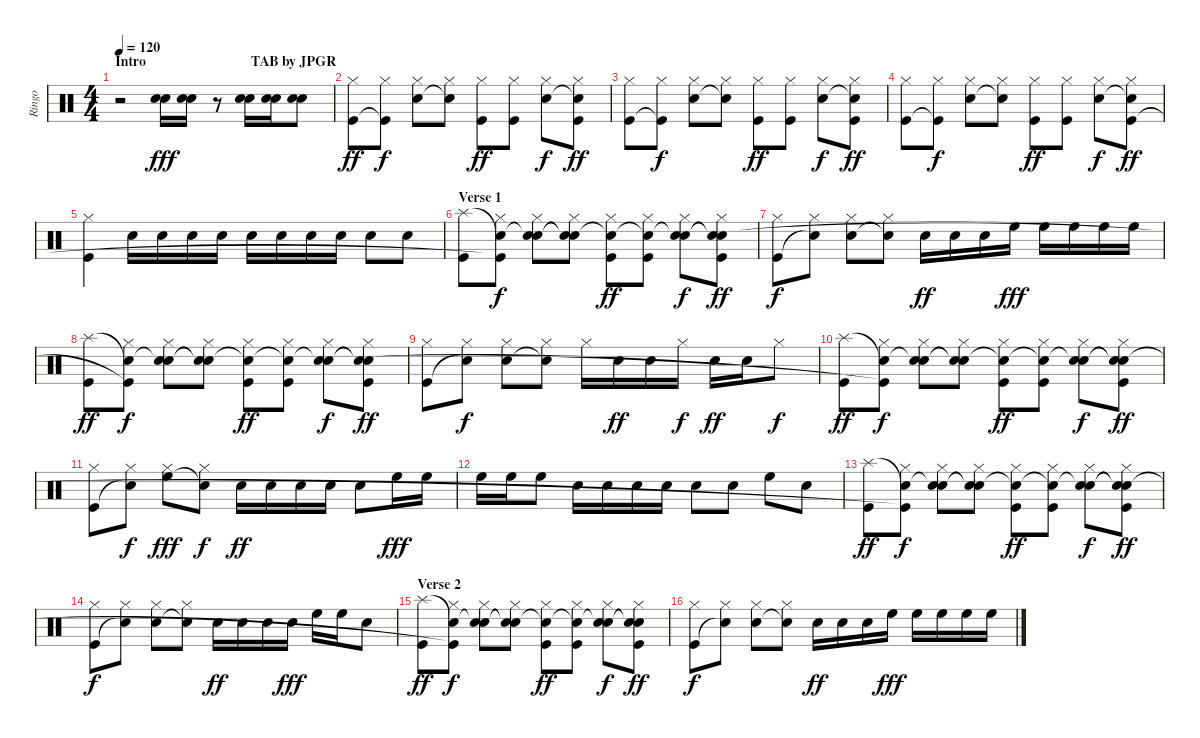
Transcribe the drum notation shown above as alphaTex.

\track ("Ringo" "Ringo") {instrument percussion}
\staff {score}
\articulation defaults
\ts (4 4)
\section ("" "Intro                              TAB by JPGR")
\tempo 120
\clef neutral
\ks c
r.2{dy fff} ("Electric Snare (hit)" "Electric Snare (hit)").16 ("Electric Snare (hit)" "Electric Snare (hit)").16 r.8 ("Electric Snare (hit)" "Electric Snare (hit)").16 ("Electric Snare (hit)" "Electric Snare (hit)").16 ("Electric Snare (hit)" "Electric Snare (hit)").8 |
("Hi-Hat (closed)" "Kick (hit)").8{dy ff} ("Hi-Hat (closed)" "Kick (hit)"{t}).8{dy f} ("Hi-Hat (closed)" "Electric Snare (hit)").8 ("Hi-Hat (closed)" "Snare (hit)"{t}).8 ("Hi-Hat (closed)" "Kick (hit)").8{dy ff} ("Hi-Hat (closed)" "Kick (hit)").8 ("Hi-Hat (closed)" "Electric Snare (hit)").8{dy f} ("Hi-Hat (closed)" "Snare (hit)"{t} "Kick (hit)").8{dy ff} |
("Hi-Hat (closed)" "Kick (hit)").8 ("Hi-Hat (closed)" "Kick (hit)"{t}).8{dy f} ("Hi-Hat (closed)" "Electric Snare (hit)").8 ("Hi-Hat (closed)" "Snare (hit)"{t}).8 ("Hi-Hat (closed)" "Kick (hit)").8{dy ff} ("Hi-Hat (closed)" "Kick (hit)").8 ("Hi-Hat (closed)" "Electric Snare (hit)").8{dy f} ("Hi-Hat (closed)" "Snare (hit)"{t} "Kick (hit)").8{dy ff} |
("Hi-Hat (closed)" "Kick (hit)").8 ("Hi-Hat (closed)" "Kick (hit)"{t}).8{dy f} ("Hi-Hat (closed)" "Electric Snare (hit)").8 ("Hi-Hat (closed)" "Snare (hit)"{t}).8 ("Hi-Hat (closed)" "Kick (hit)").8{dy ff} ("Hi-Hat (closed)" "Kick (hit)").8 ("Hi-Hat (closed)" "Electric Snare (hit)").8{dy f} ("Hi-Hat (closed)" "Snare (hit)"{t} "Kick (hit)").8{dy ff} |
("Hi-Hat (closed)" "Kick (hit)").4 "Electric Snare (hit)".16 "Electric Snare (hit)".16 "Electric Snare (hit)".16 "Electric Snare (hit)".16 "Electric Snare (hit)".16 "Electric Snare (hit)".16 "Electric Snare (hit)".16 "Electric Snare (hit)".16 "Electric Snare (hit)".8 "Electric Snare (hit)".8 |
\section ("" "Verse 1")
("Splash (hit)" "Kick (hit)").8 ("Snare (hit)"{t} "Hi-Hat (closed)" "Kick (hit)"{t}).8{dy f} ("Snare (hit)"{t} "Hi-Hat (closed)" "Electric Snare (hit)").8 ("Snare (hit)"{t} "Hi-Hat (closed)" "Snare (hit)"{t}).8 ("Snare (hit)"{t} "Hi-Hat (closed)" "Kick (hit)").8{dy ff} ("Snare (hit)"{t} "Hi-Hat (closed)" "Kick (hit)").8 ("Snare (hit)"{t} "Hi-Hat (closed)" "Electric Snare (hit)").8{dy f} ("Snare (hit)"{t} "Hi-Hat (closed)" "Snare (hit)"{t} "Kick (hit)").8{dy ff} |
("Hi-Hat (closed)" "Kick (hit)").8{dy f} ("Hi-Hat (closed)" "Snare (hit)"{t}).8 ("Hi-Hat (closed)" "Electric Snare (hit)").8 ("Hi-Hat (closed)" "Snare (hit)"{t}).8 "Electric Snare (hit)".16{dy ff} "Electric Snare (hit)".16 "Electric Snare (hit)".16 "High Floor Tom (hit)".16{dy fff} "High Floor Tom (hit)".16 "High Floor Tom (hit)".16 "High Floor Tom (hit)".16 "High Floor Tom (hit)".16 |
("Splash (hit)" "Kick (hit)").8{dy ff} ("Snare (hit)"{t} "Hi-Hat (closed)" "Kick (hit)"{t}).8{dy f} ("Snare (hit)"{t} "Hi-Hat (closed)" "Electric Snare (hit)").8 ("Snare (hit)"{t} "Hi-Hat (closed)" "Snare (hit)"{t}).8 ("Snare (hit)"{t} "Hi-Hat (closed)" "Kick (hit)").8{dy ff} ("Snare (hit)"{t} "Hi-Hat (closed)" "Kick (hit)").8 ("Snare (hit)"{t} "Hi-Hat (closed)" "Electric Snare (hit)").8{dy f} ("Snare (hit)"{t} "Hi-Hat (closed)" "Snare (hit)"{t} "Kick (hit)").8{dy ff} |
("Hi-Hat (closed)" "Kick (hit)").8 ("Hi-Hat (closed)" "Snare (hit)"{t}).8{dy f} ("Hi-Hat (closed)" "Electric Snare (hit)").8 ("Hi-Hat (closed)" "Snare (hit)"{t}).8 "Hi-Hat (closed)".16 "Electric Snare (hit)".16{dy ff} "Electric Snare (hit)".16 "Hi-Hat (closed)".16{dy f} "Electric Snare (hit)".16{dy ff} "Electric Snare (hit)".16 "Hi-Hat (closed)".8{dy f} |
("Splash (hit)" "Kick (hit)").8{dy ff} ("Snare (hit)"{t} "Hi-Hat (closed)" "Kick (hit)"{t}).8{dy f} ("Snare (hit)"{t} "Hi-Hat (closed)" "Electric Snare (hit)").8 ("Snare (hit)"{t} "Hi-Hat (closed)" "Snare (hit)"{t}).8 ("Snare (hit)"{t} "Hi-Hat (closed)" "Kick (hit)").8{dy ff} ("Snare (hit)"{t} "Hi-Hat (closed)" "Kick (hit)").8 ("Snare (hit)"{t} "Hi-Hat (closed)" "Electric Snare (hit)").8{dy f} ("Snare (hit)"{t} "Hi-Hat (closed)" "Snare (hit)"{t} "Kick (hit)").8{dy ff} |
("Hi-Hat (closed)" "Kick (hit)").8 ("Hi-Hat (closed)" "Snare (hit)"{t}).8{dy f} ("Hi-Hat (closed)" "High Floor Tom (hit)").8{dy fff} ("Hi-Hat (closed)" "Snare (hit)"{t}).8{dy f} "Electric Snare (hit)".16{dy ff} "Electric Snare (hit)".16 "Electric Snare (hit)".16 "Electric Snare (hit)".16 "Electric Snare (hit)".8 "High Floor Tom (hit)".16{dy fff} "High Floor Tom (hit)".16 |
"High Floor Tom (hit)".16 "High Floor Tom (hit)".16 "High Floor Tom (hit)".8 "Electric Snare (hit)".16 "Electric Snare (hit)".16 "Electric Snare (hit)".16 "Electric Snare (hit)".16 "Electric Snare (hit)".8 "Electric Snare (hit)".8 "High Floor Tom (hit)".8 "Electric Snare (hit)".8 |
("Splash (hit)" "Kick (hit)").8{dy ff} ("Snare (hit)"{t} "Hi-Hat (closed)" "Kick (hit)"{t}).8{dy f} ("Snare (hit)"{t} "Hi-Hat (closed)" "Electric Snare (hit)").8 ("Snare (hit)"{t} "Hi-Hat (closed)" "Snare (hit)"{t}).8 ("Snare (hit)"{t} "Hi-Hat (closed)" "Kick (hit)").8{dy ff} ("Snare (hit)"{t} "Hi-Hat (closed)" "Kick (hit)").8 ("Snare (hit)"{t} "Hi-Hat (closed)" "Electric Snare (hit)").8{dy f} ("Snare (hit)"{t} "Hi-Hat (closed)" "Snare (hit)"{t} "Kick (hit)").8{dy ff} |
("Hi-Hat (closed)" "Kick (hit)").8{dy f} ("Hi-Hat (closed)" "Snare (hit)"{t}).8 ("Hi-Hat (closed)" "Electric Snare (hit)").8 ("Hi-Hat (closed)" "Snare (hit)"{t}).8 "Electric Snare (hit)".16{dy ff} "Electric Snare (hit)".16 "Electric Snare (hit)".16 "Electric Snare (hit)".16{dy fff} "High Floor Tom (hit)".16 "High Floor Tom (hit)".16 "Electric Snare (hit)".8 |
\section ("" "Verse 2")
("Splash (hit)" "Kick (hit)").8{dy ff} ("Snare (hit)"{t} "Hi-Hat (closed)" "Kick (hit)"{t}).8{dy f} ("Snare (hit)"{t} "Hi-Hat (closed)" "Electric Snare (hit)").8 ("Snare (hit)"{t} "Hi-Hat (closed)" "Snare (hit)"{t}).8 ("Snare (hit)"{t} "Hi-Hat (closed)" "Kick (hit)").8{dy ff} ("Snare (hit)"{t} "Hi-Hat (closed)" "Kick (hit)").8 ("Snare (hit)"{t} "Hi-Hat (closed)" "Electric Snare (hit)").8{dy f} ("Snare (hit)"{t} "Hi-Hat (closed)" "Snare (hit)"{t} "Kick (hit)").8{dy ff} |
("Hi-Hat (closed)" "Kick (hit)").8{dy f} ("Hi-Hat (closed)" "Snare (hit)"{t}).8 ("Hi-Hat (closed)" "Electric Snare (hit)").8 ("Hi-Hat (closed)" "Snare (hit)"{t}).8 "Electric Snare (hit)".16{dy ff} "Electric Snare (hit)".16 "Electric Snare (hit)".16 "High Floor Tom (hit)".16{dy fff} "High Floor Tom (hit)".16 "High Floor Tom (hit)".16 "High Floor Tom (hit)".16 "High Floor Tom (hit)".16
